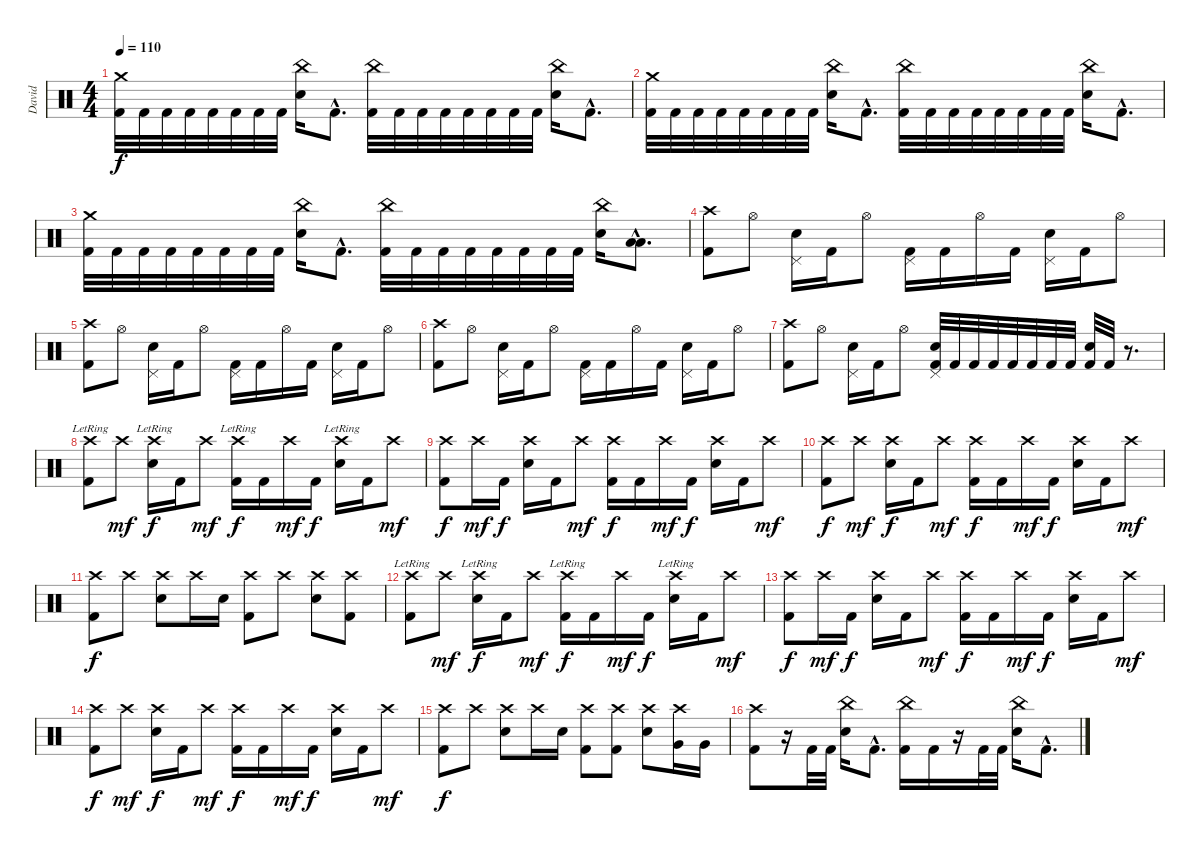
\track ("David" "David") {instrument percussion}
\staff {score}
\articulation defaults
\ts (4 4)
\tempo 110
\clef neutral
\ks c
("Crash medium (hit)" "Kick (hit) 2").32{dy f} "Kick (hit) 2".32 "Kick (hit) 2".32 "Kick (hit) 2".32 "Kick (hit) 2".32 "Kick (hit) 2".32 "Kick (hit) 2".32 "Kick (hit) 2".32 ("China (hit)" "Electric Snare (hit)").16 "Kick (hit) 2"{hac}.8{d} ("China (hit)" "Kick (hit) 2").32 "Kick (hit) 2".32 "Kick (hit) 2".32 "Kick (hit) 2".32 "Kick (hit) 2".32 "Kick (hit) 2".32 "Kick (hit) 2".32 "Kick (hit) 2".32 ("China (hit)" "Electric Snare (hit)").16 "Kick (hit) 2"{hac}.8{d} |
("Crash medium (hit)" "Kick (hit) 2").32 "Kick (hit) 2".32 "Kick (hit) 2".32 "Kick (hit) 2".32 "Kick (hit) 2".32 "Kick (hit) 2".32 "Kick (hit) 2".32 "Kick (hit) 2".32 ("China (hit)" "Electric Snare (hit)").16 "Kick (hit) 2"{hac}.8{d} ("China (hit)" "Kick (hit) 2").32 "Kick (hit) 2".32 "Kick (hit) 2".32 "Kick (hit) 2".32 "Kick (hit) 2".32 "Kick (hit) 2".32 "Kick (hit) 2".32 "Kick (hit) 2".32 ("China (hit)" "Electric Snare (hit)").16 "Kick (hit) 2"{hac}.8{d} |
("Crash medium (hit)" "Kick (hit) 2").32 "Kick (hit) 2".32 "Kick (hit) 2".32 "Kick (hit) 2".32 "Kick (hit) 2".32 "Kick (hit) 2".32 "Kick (hit) 2".32 "Kick (hit) 2".32 ("China (hit)" "Electric Snare (hit)").16 "Kick (hit) 2"{hac}.8{d} ("China (hit)" "Kick (hit) 2").32 "Kick (hit) 2".32 "Kick (hit) 2".32 "Kick (hit) 2".32 "Kick (hit) 2".32 "Kick (hit) 2".32 "Kick (hit) 2".32 "Kick (hit) 2".32 ("China (hit)" "Electric Snare (hit)").16 ("Low Floor Tom (hit)"{hac} "Low Tom (hit)"{hac}).8{d} |
("Crash high (hit)" "Kick (hit) 2").8 "Hi-Hat (open)".8 ("Pedal Hi-Hat (hit)" "Electric Snare (hit)").16 "Kick (hit) 2".16 "Hi-Hat (open)".8 ("Pedal Hi-Hat (hit)" "Kick (hit) 2").16 "Kick (hit) 2".16 "Hi-Hat (open)".16 "Kick (hit) 2".16 ("Pedal Hi-Hat (hit)" "Electric Snare (hit)").16 "Kick (hit) 2".16 "Hi-Hat (open)".8 |
("Crash high (hit)" "Kick (hit) 2").8 "Hi-Hat (open)".8 ("Pedal Hi-Hat (hit)" "Electric Snare (hit)").16 "Kick (hit) 2".16 "Hi-Hat (open)".8 ("Pedal Hi-Hat (hit)" "Kick (hit) 2").16 "Kick (hit) 2".16 "Hi-Hat (open)".16 "Kick (hit) 2".16 ("Pedal Hi-Hat (hit)" "Electric Snare (hit)").16 "Kick (hit) 2".16 "Hi-Hat (open)".8 |
("Crash high (hit)" "Kick (hit) 2").8 "Hi-Hat (open)".8 ("Pedal Hi-Hat (hit)" "Electric Snare (hit)").16 "Kick (hit) 2".16 "Hi-Hat (open)".8 ("Pedal Hi-Hat (hit)" "Kick (hit) 2").16 "Kick (hit) 2".16 "Hi-Hat (open)".16 "Kick (hit) 2".16 ("Pedal Hi-Hat (hit)" "Electric Snare (hit)").16 "Kick (hit) 2".16 "Hi-Hat (open)".8 |
("Crash high (hit)" "Kick (hit) 2").8 "Hi-Hat (open)".8 ("Pedal Hi-Hat (hit)" "Electric Snare (hit)").16 "Kick (hit) 2".16 "Hi-Hat (open)".8 ("Pedal Hi-Hat (hit)" "Electric Snare (hit)" "Kick (hit) 2").32 "Kick (hit) 2".32 "Kick (hit) 2".32 "Kick (hit) 2".32 "Kick (hit) 2".32 "Kick (hit) 2".32 "Kick (hit) 2".32 "Kick (hit) 2".32 ("Electric Snare (hit)" "Kick (hit) 2").32 "Kick (hit) 2".32 r.8{d} |
("Crash high (hit)"{lr} "Kick (hit) 2").8 "Crash high (hit)".8{dy mf} ("Crash high (hit)"{lr} "Electric Snare (hit)").16{dy f} "Kick (hit) 2".16 "Crash high (hit)".8{dy mf} ("Crash high (hit)"{lr} "Kick (hit) 2").16{dy f} "Kick (hit) 2".16 "Crash high (hit)".16{dy mf} "Kick (hit) 2".16{dy f} ("Crash high (hit)"{lr} "Electric Snare (hit)").16 "Kick (hit) 2".16 "Crash high (hit)".8{dy mf} |
("Crash high (hit)" "Kick (hit) 2").8{dy f} "Crash high (hit)".16{dy mf} "Kick (hit) 2".16{dy f} ("Crash high (hit)" "Electric Snare (hit)").16 "Kick (hit) 2".16 "Crash high (hit)".8{dy mf} ("Crash high (hit)" "Kick (hit) 2").16{dy f} "Kick (hit) 2".16 "Crash high (hit)".16{dy mf} "Kick (hit) 2".16{dy f} ("Crash high (hit)" "Electric Snare (hit)").16 "Kick (hit) 2".16 "Crash high (hit)".8{dy mf} |
("Crash high (hit)" "Kick (hit) 2").8{dy f} "Crash high (hit)".8{dy mf} ("Crash high (hit)" "Electric Snare (hit)").16{dy f} "Kick (hit) 2".16 "Crash high (hit)".8{dy mf} ("Crash high (hit)" "Kick (hit) 2").16{dy f} "Kick (hit) 2".16 "Crash high (hit)".16{dy mf} "Kick (hit) 2".16{dy f} ("Crash high (hit)" "Electric Snare (hit)").16 "Kick (hit) 2".16 "Crash high (hit)".8{dy mf} |
("Crash high (hit)" "Kick (hit) 2").8{dy f} "Crash high (hit)".8 ("Crash high (hit)" "Electric Snare (hit)").8 "Crash high (hit)".16 "Electric Snare (hit)".16 ("Crash high (hit)" "Kick (hit) 2").8 "Crash high (hit)".8 ("Crash high (hit)" "Electric Snare (hit)").8 ("Crash high (hit)" "Kick (hit) 2").8 |
("Crash high (hit)"{lr} "Kick (hit) 2").8 "Crash high (hit)".8{dy mf} ("Crash high (hit)"{lr} "Electric Snare (hit)").16{dy f} "Kick (hit) 2".16 "Crash high (hit)".8{dy mf} ("Crash high (hit)"{lr} "Kick (hit) 2").16{dy f} "Kick (hit) 2".16 "Crash high (hit)".16{dy mf} "Kick (hit) 2".16{dy f} ("Crash high (hit)"{lr} "Electric Snare (hit)").16 "Kick (hit) 2".16 "Crash high (hit)".8{dy mf} |
("Crash high (hit)" "Kick (hit) 2").8{dy f} "Crash high (hit)".16{dy mf} "Kick (hit) 2".16{dy f} ("Crash high (hit)" "Electric Snare (hit)").16 "Kick (hit) 2".16 "Crash high (hit)".8{dy mf} ("Crash high (hit)" "Kick (hit) 2").16{dy f} "Kick (hit) 2".16 "Crash high (hit)".16{dy mf} "Kick (hit) 2".16{dy f} ("Crash high (hit)" "Electric Snare (hit)").16 "Kick (hit) 2".16 "Crash high (hit)".8{dy mf} |
("Crash high (hit)" "Kick (hit) 2").8{dy f} "Crash high (hit)".8{dy mf} ("Crash high (hit)" "Electric Snare (hit)").16{dy f} "Kick (hit) 2".16 "Crash high (hit)".8{dy mf} ("Crash high (hit)" "Kick (hit) 2").16{dy f} "Kick (hit) 2".16 "Crash high (hit)".16{dy mf} "Kick (hit) 2".16{dy f} ("Crash high (hit)" "Electric Snare (hit)").16 "Kick (hit) 2".16 "Crash high (hit)".8{dy mf} |
("Crash high (hit)" "Kick (hit) 2").8{dy f} "Crash high (hit)".8 ("Crash high (hit)" "Electric Snare (hit)").8 "Crash high (hit)".16 "Electric Snare (hit)".16 ("Crash high (hit)" "Kick (hit) 2").8 ("Crash high (hit)" "Kick (hit) 2").8 ("Crash high (hit)" "Electric Snare (hit)").8 ("Crash high (hit)" "Very Low Tom (hit)").16 "Very Low Tom (hit)".16 |
("Crash high (hit)" "Kick (hit) 2").8 r.16 "Kick (hit) 2".32 "Kick (hit) 2".32 ("China (hit)" "Electric Snare (hit)").16 "Kick (hit) 2"{hac}.8{d} ("China (hit)" "Kick (hit) 2").16 "Kick (hit) 2".16 r.16 "Kick (hit) 2".32 "Kick (hit) 2".32 ("China (hit)" "Electric Snare (hit)").16 "Kick (hit) 2"{hac}.8{d}
